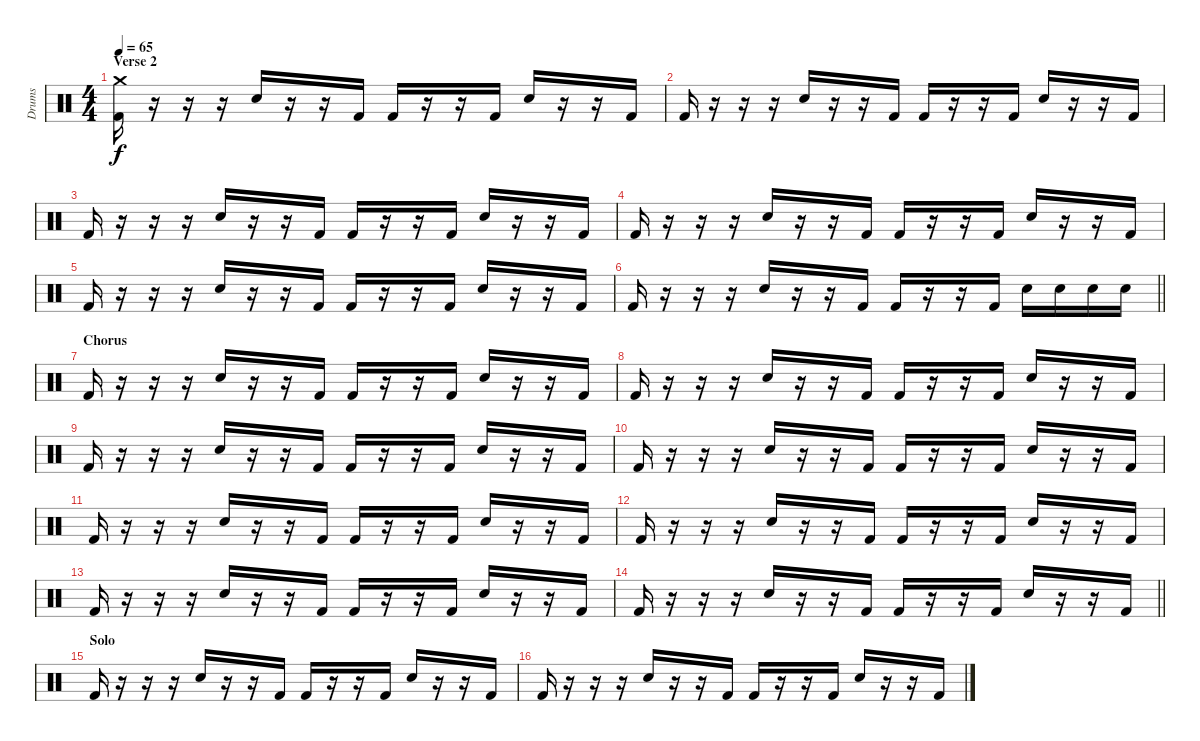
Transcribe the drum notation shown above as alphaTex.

\track ("Drums" "Drums") {instrument percussion}
\staff {score}
\articulation defaults
\ts (4 4)
\section ("" "Verse 2")
\tempo 65
\clef neutral
\ks c
("Kick (hit) 2" "Crash medium (hit)").16{dy f} r.16 r.16 r.16 "Snare (hit) 2".16 r.16 r.16 "Kick (hit) 2".16 "Kick (hit) 2".16 r.16 r.16 "Kick (hit) 2".16 "Snare (hit) 2".16 r.16 r.16 "Kick (hit) 2".16 |
"Kick (hit) 2".16 r.16 r.16 r.16 "Snare (hit) 2".16 r.16 r.16 "Kick (hit) 2".16 "Kick (hit) 2".16 r.16 r.16 "Kick (hit) 2".16 "Snare (hit) 2".16 r.16 r.16 "Kick (hit) 2".16 |
"Kick (hit) 2".16 r.16 r.16 r.16 "Snare (hit) 2".16 r.16 r.16 "Kick (hit) 2".16 "Kick (hit) 2".16 r.16 r.16 "Kick (hit) 2".16 "Snare (hit) 2".16 r.16 r.16 "Kick (hit) 2".16 |
"Kick (hit) 2".16 r.16 r.16 r.16 "Snare (hit) 2".16 r.16 r.16 "Kick (hit) 2".16 "Kick (hit) 2".16 r.16 r.16 "Kick (hit) 2".16 "Snare (hit) 2".16 r.16 r.16 "Kick (hit) 2".16 |
"Kick (hit) 2".16 r.16 r.16 r.16 "Snare (hit) 2".16 r.16 r.16 "Kick (hit) 2".16 "Kick (hit) 2".16 r.16 r.16 "Kick (hit) 2".16 "Snare (hit) 2".16 r.16 r.16 "Kick (hit) 2".16 |
\barLineRight lightlight "Kick (hit) 2".16
r.16 r.16 r.16 "Snare (hit) 2".16 r.16 r.16 "Kick (hit) 2".16 "Kick (hit) 2".16 r.16 r.16 "Kick (hit) 2".16 "Snare (hit) 2".16 "Snare (hit) 2".16 "Snare (hit) 2".16 "Snare (hit) 2".16 |
\section ("" "Chorus")
"Kick (hit) 2".16 r.16 r.16 r.16 "Snare (hit) 2".16 r.16 r.16 "Kick (hit) 2".16 "Kick (hit) 2".16 r.16 r.16 "Kick (hit) 2".16 "Snare (hit) 2".16 r.16 r.16 "Kick (hit) 2".16 |
"Kick (hit) 2".16 r.16 r.16 r.16 "Snare (hit) 2".16 r.16 r.16 "Kick (hit) 2".16 "Kick (hit) 2".16 r.16 r.16 "Kick (hit) 2".16 "Snare (hit) 2".16 r.16 r.16 "Kick (hit) 2".16 |
"Kick (hit) 2".16 r.16 r.16 r.16 "Snare (hit) 2".16 r.16 r.16 "Kick (hit) 2".16 "Kick (hit) 2".16 r.16 r.16 "Kick (hit) 2".16 "Snare (hit) 2".16 r.16 r.16 "Kick (hit) 2".16 |
"Kick (hit) 2".16 r.16 r.16 r.16 "Snare (hit) 2".16 r.16 r.16 "Kick (hit) 2".16 "Kick (hit) 2".16 r.16 r.16 "Kick (hit) 2".16 "Snare (hit) 2".16 r.16 r.16 "Kick (hit) 2".16 |
"Kick (hit) 2".16 r.16 r.16 r.16 "Snare (hit) 2".16 r.16 r.16 "Kick (hit) 2".16 "Kick (hit) 2".16 r.16 r.16 "Kick (hit) 2".16 "Snare (hit) 2".16 r.16 r.16 "Kick (hit) 2".16 |
"Kick (hit) 2".16 r.16 r.16 r.16 "Snare (hit) 2".16 r.16 r.16 "Kick (hit) 2".16 "Kick (hit) 2".16 r.16 r.16 "Kick (hit) 2".16 "Snare (hit) 2".16 r.16 r.16 "Kick (hit) 2".16 |
"Kick (hit) 2".16 r.16 r.16 r.16 "Snare (hit) 2".16 r.16 r.16 "Kick (hit) 2".16 "Kick (hit) 2".16 r.16 r.16 "Kick (hit) 2".16 "Snare (hit) 2".16 r.16 r.16 "Kick (hit) 2".16 |
\barLineRight lightlight "Kick (hit) 2".16
r.16 r.16 r.16 "Snare (hit) 2".16 r.16 r.16 "Kick (hit) 2".16 "Kick (hit) 2".16 r.16 r.16 "Kick (hit) 2".16 "Snare (hit) 2".16 r.16 r.16 "Kick (hit) 2".16 |
\section ("" "Solo")
"Kick (hit) 2".16 r.16 r.16 r.16 "Snare (hit) 2".16 r.16 r.16 "Kick (hit) 2".16 "Kick (hit) 2".16 r.16 r.16 "Kick (hit) 2".16 "Snare (hit) 2".16 r.16 r.16 "Kick (hit) 2".16 |
"Kick (hit) 2".16 r.16 r.16 r.16 "Snare (hit) 2".16 r.16 r.16 "Kick (hit) 2".16 "Kick (hit) 2".16 r.16 r.16 "Kick (hit) 2".16 "Snare (hit) 2".16 r.16 r.16 "Kick (hit) 2".16
